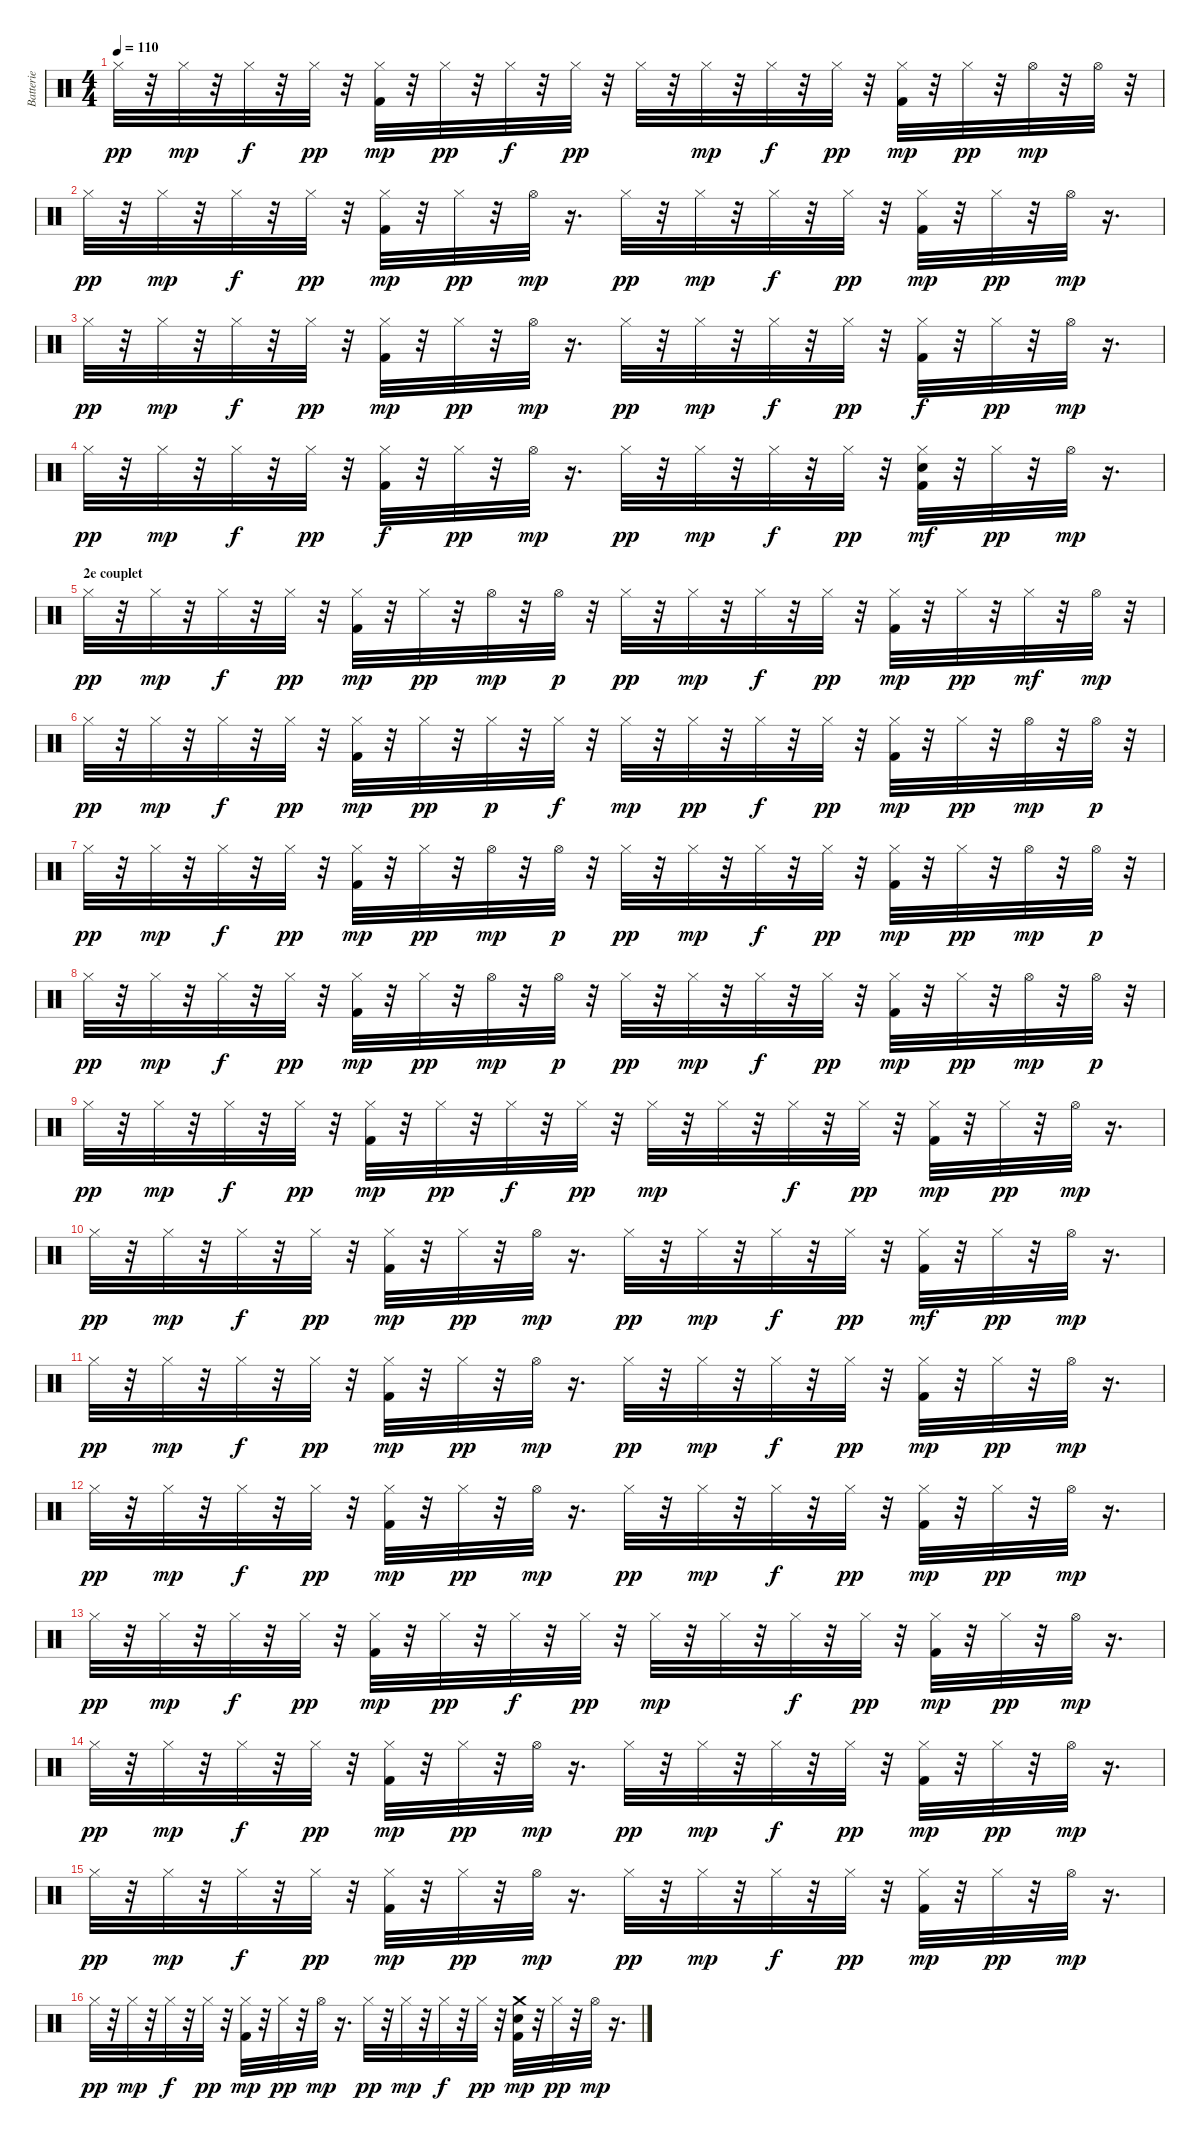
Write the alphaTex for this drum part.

\track ("Batterie" "Batterie") {instrument percussion}
\staff {score}
\articulation defaults
\ts (4 4)
\tempo 110
\clef neutral
\ks c "Hi-Hat (closed)".32{dy pp}
r.32 "Hi-Hat (closed)".32{dy mp} r.32 "Hi-Hat (closed)".32{dy f} r.32 "Hi-Hat (closed)".32{dy pp} r.32 ("Kick (hit) 2" "Hi-Hat (closed)").32{dy mp} r.32 "Hi-Hat (closed)".32{dy pp} r.32 "Hi-Hat (closed)".32{dy f} r.32 "Hi-Hat (closed)".32{dy pp} r.32 "Hi-Hat (closed)".32 r.32 "Hi-Hat (closed)".32{dy mp} r.32 "Hi-Hat (closed)".32{dy f} r.32 "Hi-Hat (closed)".32{dy pp} r.32 ("Kick (hit) 2" "Hi-Hat (closed)").32{dy mp} r.32 "Hi-Hat (closed)".32{dy pp} r.32 "Hi-Hat (open)".32{dy mp} r.32 "Hi-Hat (open)".32 r.32 |
"Hi-Hat (closed)".32{dy pp} r.32 "Hi-Hat (closed)".32{dy mp} r.32 "Hi-Hat (closed)".32{dy f} r.32 "Hi-Hat (closed)".32{dy pp} r.32 ("Kick (hit) 2" "Hi-Hat (closed)").32{dy mp} r.32 "Hi-Hat (closed)".32{dy pp} r.32 "Hi-Hat (open)".32{dy mp} r.16{d} "Hi-Hat (closed)".32{dy pp} r.32 "Hi-Hat (closed)".32{dy mp} r.32 "Hi-Hat (closed)".32{dy f} r.32 "Hi-Hat (closed)".32{dy pp} r.32 ("Kick (hit) 2" "Hi-Hat (closed)").32{dy mp} r.32 "Hi-Hat (closed)".32{dy pp} r.32 "Hi-Hat (open)".32{dy mp} r.16{d} |
"Hi-Hat (closed)".32{dy pp} r.32 "Hi-Hat (closed)".32{dy mp} r.32 "Hi-Hat (closed)".32{dy f} r.32 "Hi-Hat (closed)".32{dy pp} r.32 ("Kick (hit) 2" "Hi-Hat (closed)").32{dy mp} r.32 "Hi-Hat (closed)".32{dy pp} r.32 "Hi-Hat (open)".32{dy mp} r.16{d} "Hi-Hat (closed)".32{dy pp} r.32 "Hi-Hat (closed)".32{dy mp} r.32 "Hi-Hat (closed)".32{dy f} r.32 "Hi-Hat (closed)".32{dy pp} r.32 ("Kick (hit) 2" "Hi-Hat (closed)").32{dy f} r.32 "Hi-Hat (closed)".32{dy pp} r.32 "Hi-Hat (open)".32{dy mp} r.16{d} |
"Hi-Hat (closed)".32{dy pp} r.32 "Hi-Hat (closed)".32{dy mp} r.32 "Hi-Hat (closed)".32{dy f} r.32 "Hi-Hat (closed)".32{dy pp} r.32 ("Kick (hit) 2" "Hi-Hat (closed)").32{dy f} r.32 "Hi-Hat (closed)".32{dy pp} r.32 "Hi-Hat (open)".32{dy mp} r.16{d} "Hi-Hat (closed)".32{dy pp} r.32 "Hi-Hat (closed)".32{dy mp} r.32 "Hi-Hat (closed)".32{dy f} r.32 "Hi-Hat (closed)".32{dy pp} r.32 ("Kick (hit) 2" "Electric Snare (hit)" "Hi-Hat (closed)").32{dy mf} r.32 "Hi-Hat (closed)".32{dy pp} r.32 "Hi-Hat (open)".32{dy mp} r.16{d} |
\section ("" "2e couplet")
"Hi-Hat (closed)".32{dy pp} r.32 "Hi-Hat (closed)".32{dy mp} r.32 "Hi-Hat (closed)".32{dy f} r.32 "Hi-Hat (closed)".32{dy pp} r.32 ("Kick (hit) 2" "Hi-Hat (closed)").32{dy mp} r.32 "Hi-Hat (closed)".32{dy pp} r.32 "Hi-Hat (open)".32{dy mp} r.32 "Hi-Hat (open)".32{dy p} r.32 "Hi-Hat (closed)".32{dy pp} r.32 "Hi-Hat (closed)".32{dy mp} r.32 "Hi-Hat (closed)".32{dy f} r.32 "Hi-Hat (closed)".32{dy pp} r.32 ("Kick (hit) 2" "Hi-Hat (closed)").32{dy mp} r.32 "Hi-Hat (closed)".32{dy pp} r.32 "Hi-Hat (closed)".32{dy mf} r.32 "Hi-Hat (open)".32{dy mp} r.32 |
"Hi-Hat (closed)".32{dy pp} r.32 "Hi-Hat (closed)".32{dy mp} r.32 "Hi-Hat (closed)".32{dy f} r.32 "Hi-Hat (closed)".32{dy pp} r.32 ("Kick (hit) 2" "Hi-Hat (closed)").32{dy mp} r.32 "Hi-Hat (closed)".32{dy pp} r.32 "Hi-Hat (closed)".32{dy p} r.32 "Hi-Hat (closed)".32{dy f} r.32 "Hi-Hat (closed)".32{dy mp} r.32 "Hi-Hat (closed)".32{dy pp} r.32 "Hi-Hat (closed)".32{dy f} r.32 "Hi-Hat (closed)".32{dy pp} r.32 ("Kick (hit) 2" "Hi-Hat (closed)").32{dy mp} r.32 "Hi-Hat (closed)".32{dy pp} r.32 "Hi-Hat (open)".32{dy mp} r.32 "Hi-Hat (open)".32{dy p} r.32 |
"Hi-Hat (closed)".32{dy pp} r.32 "Hi-Hat (closed)".32{dy mp} r.32 "Hi-Hat (closed)".32{dy f} r.32 "Hi-Hat (closed)".32{dy pp} r.32 ("Kick (hit) 2" "Hi-Hat (closed)").32{dy mp} r.32 "Hi-Hat (closed)".32{dy pp} r.32 "Hi-Hat (open)".32{dy mp} r.32 "Hi-Hat (open)".32{dy p} r.32 "Hi-Hat (closed)".32{dy pp} r.32 "Hi-Hat (closed)".32{dy mp} r.32 "Hi-Hat (closed)".32{dy f} r.32 "Hi-Hat (closed)".32{dy pp} r.32 ("Kick (hit) 2" "Hi-Hat (closed)").32{dy mp} r.32 "Hi-Hat (closed)".32{dy pp} r.32 "Hi-Hat (open)".32{dy mp} r.32 "Hi-Hat (open)".32{dy p} r.32 |
"Hi-Hat (closed)".32{dy pp} r.32 "Hi-Hat (closed)".32{dy mp} r.32 "Hi-Hat (closed)".32{dy f} r.32 "Hi-Hat (closed)".32{dy pp} r.32 ("Kick (hit) 2" "Hi-Hat (closed)").32{dy mp} r.32 "Hi-Hat (closed)".32{dy pp} r.32 "Hi-Hat (open)".32{dy mp} r.32 "Hi-Hat (open)".32{dy p} r.32 "Hi-Hat (closed)".32{dy pp} r.32 "Hi-Hat (closed)".32{dy mp} r.32 "Hi-Hat (closed)".32{dy f} r.32 "Hi-Hat (closed)".32{dy pp} r.32 ("Kick (hit) 2" "Hi-Hat (closed)").32{dy mp} r.32 "Hi-Hat (closed)".32{dy pp} r.32 "Hi-Hat (open)".32{dy mp} r.32 "Hi-Hat (open)".32{dy p} r.32 |
"Hi-Hat (closed)".32{dy pp} r.32 "Hi-Hat (closed)".32{dy mp} r.32 "Hi-Hat (closed)".32{dy f} r.32 "Hi-Hat (closed)".32{dy pp} r.32 ("Kick (hit) 2" "Hi-Hat (closed)").32{dy mp} r.32 "Hi-Hat (closed)".32{dy pp} r.32 "Hi-Hat (closed)".32{dy f} r.32 "Hi-Hat (closed)".32{dy pp} r.32 "Hi-Hat (closed)".32{dy mp} r.32 "Hi-Hat (closed)".32 r.32 "Hi-Hat (closed)".32{dy f} r.32 "Hi-Hat (closed)".32{dy pp} r.32 ("Kick (hit) 2" "Hi-Hat (closed)").32{dy mp} r.32 "Hi-Hat (closed)".32{dy pp} r.32 "Hi-Hat (open)".32{dy mp} r.16{d} |
"Hi-Hat (closed)".32{dy pp} r.32 "Hi-Hat (closed)".32{dy mp} r.32 "Hi-Hat (closed)".32{dy f} r.32 "Hi-Hat (closed)".32{dy pp} r.32 ("Kick (hit) 2" "Hi-Hat (closed)").32{dy mp} r.32 "Hi-Hat (closed)".32{dy pp} r.32 "Hi-Hat (open)".32{dy mp} r.16{d} "Hi-Hat (closed)".32{dy pp} r.32 "Hi-Hat (closed)".32{dy mp} r.32 "Hi-Hat (closed)".32{dy f} r.32 "Hi-Hat (closed)".32{dy pp} r.32 ("Kick (hit) 2" "Hi-Hat (closed)").32{dy mf} r.32 "Hi-Hat (closed)".32{dy pp} r.32 "Hi-Hat (open)".32{dy mp} r.16{d} |
"Hi-Hat (closed)".32{dy pp} r.32 "Hi-Hat (closed)".32{dy mp} r.32 "Hi-Hat (closed)".32{dy f} r.32 "Hi-Hat (closed)".32{dy pp} r.32 ("Kick (hit) 2" "Hi-Hat (closed)").32{dy mp} r.32 "Hi-Hat (closed)".32{dy pp} r.32 "Hi-Hat (open)".32{dy mp} r.16{d} "Hi-Hat (closed)".32{dy pp} r.32 "Hi-Hat (closed)".32{dy mp} r.32 "Hi-Hat (closed)".32{dy f} r.32 "Hi-Hat (closed)".32{dy pp} r.32 ("Kick (hit) 2" "Hi-Hat (closed)").32{dy mp} r.32 "Hi-Hat (closed)".32{dy pp} r.32 "Hi-Hat (open)".32{dy mp} r.16{d} |
"Hi-Hat (closed)".32{dy pp} r.32 "Hi-Hat (closed)".32{dy mp} r.32 "Hi-Hat (closed)".32{dy f} r.32 "Hi-Hat (closed)".32{dy pp} r.32 ("Kick (hit) 2" "Hi-Hat (closed)").32{dy mp} r.32 "Hi-Hat (closed)".32{dy pp} r.32 "Hi-Hat (open)".32{dy mp} r.16{d} "Hi-Hat (closed)".32{dy pp} r.32 "Hi-Hat (closed)".32{dy mp} r.32 "Hi-Hat (closed)".32{dy f} r.32 "Hi-Hat (closed)".32{dy pp} r.32 ("Kick (hit) 2" "Hi-Hat (closed)").32{dy mp} r.32 "Hi-Hat (closed)".32{dy pp} r.32 "Hi-Hat (open)".32{dy mp} r.16{d} |
"Hi-Hat (closed)".32{dy pp} r.32 "Hi-Hat (closed)".32{dy mp} r.32 "Hi-Hat (closed)".32{dy f} r.32 "Hi-Hat (closed)".32{dy pp} r.32 ("Kick (hit) 2" "Hi-Hat (closed)").32{dy mp} r.32 "Hi-Hat (closed)".32{dy pp} r.32 "Hi-Hat (closed)".32{dy f} r.32 "Hi-Hat (closed)".32{dy pp} r.32 "Hi-Hat (closed)".32{dy mp} r.32 "Hi-Hat (closed)".32 r.32 "Hi-Hat (closed)".32{dy f} r.32 "Hi-Hat (closed)".32{dy pp} r.32 ("Kick (hit) 2" "Hi-Hat (closed)").32{dy mp} r.32 "Hi-Hat (closed)".32{dy pp} r.32 "Hi-Hat (open)".32{dy mp} r.16{d} |
"Hi-Hat (closed)".32{dy pp} r.32 "Hi-Hat (closed)".32{dy mp} r.32 "Hi-Hat (closed)".32{dy f} r.32 "Hi-Hat (closed)".32{dy pp} r.32 ("Kick (hit) 2" "Hi-Hat (closed)").32{dy mp} r.32 "Hi-Hat (closed)".32{dy pp} r.32 "Hi-Hat (open)".32{dy mp} r.16{d} "Hi-Hat (closed)".32{dy pp} r.32 "Hi-Hat (closed)".32{dy mp} r.32 "Hi-Hat (closed)".32{dy f} r.32 "Hi-Hat (closed)".32{dy pp} r.32 ("Kick (hit) 2" "Hi-Hat (closed)").32{dy mp} r.32 "Hi-Hat (closed)".32{dy pp} r.32 "Hi-Hat (open)".32{dy mp} r.16{d} |
"Hi-Hat (closed)".32{dy pp} r.32 "Hi-Hat (closed)".32{dy mp} r.32 "Hi-Hat (closed)".32{dy f} r.32 "Hi-Hat (closed)".32{dy pp} r.32 ("Kick (hit) 2" "Hi-Hat (closed)").32{dy mp} r.32 "Hi-Hat (closed)".32{dy pp} r.32 "Hi-Hat (open)".32{dy mp} r.16{d} "Hi-Hat (closed)".32{dy pp} r.32 "Hi-Hat (closed)".32{dy mp} r.32 "Hi-Hat (closed)".32{dy f} r.32 "Hi-Hat (closed)".32{dy pp} r.32 ("Kick (hit) 2" "Hi-Hat (closed)").32{dy mp} r.32 "Hi-Hat (closed)".32{dy pp} r.32 "Hi-Hat (open)".32{dy mp} r.16{d} |
"Hi-Hat (closed)".32{dy pp} r.32 "Hi-Hat (closed)".32{dy mp} r.32 "Hi-Hat (closed)".32{dy f} r.32 "Hi-Hat (closed)".32{dy pp} r.32 ("Kick (hit) 2" "Hi-Hat (closed)").32{dy mp} r.32 "Hi-Hat (closed)".32{dy pp} r.32 "Hi-Hat (open)".32{dy mp} r.16{d} "Hi-Hat (closed)".32{dy pp} r.32 "Hi-Hat (closed)".32{dy mp} r.32 "Hi-Hat (closed)".32{dy f} r.32 "Hi-Hat (closed)".32{dy pp} r.32 ("Kick (hit) 2" "Electric Snare (hit)" "Crash medium (hit)").32{dy mp} r.32 "Hi-Hat (closed)".32{dy pp} r.32 "Hi-Hat (open)".32{dy mp} r.16{d}
